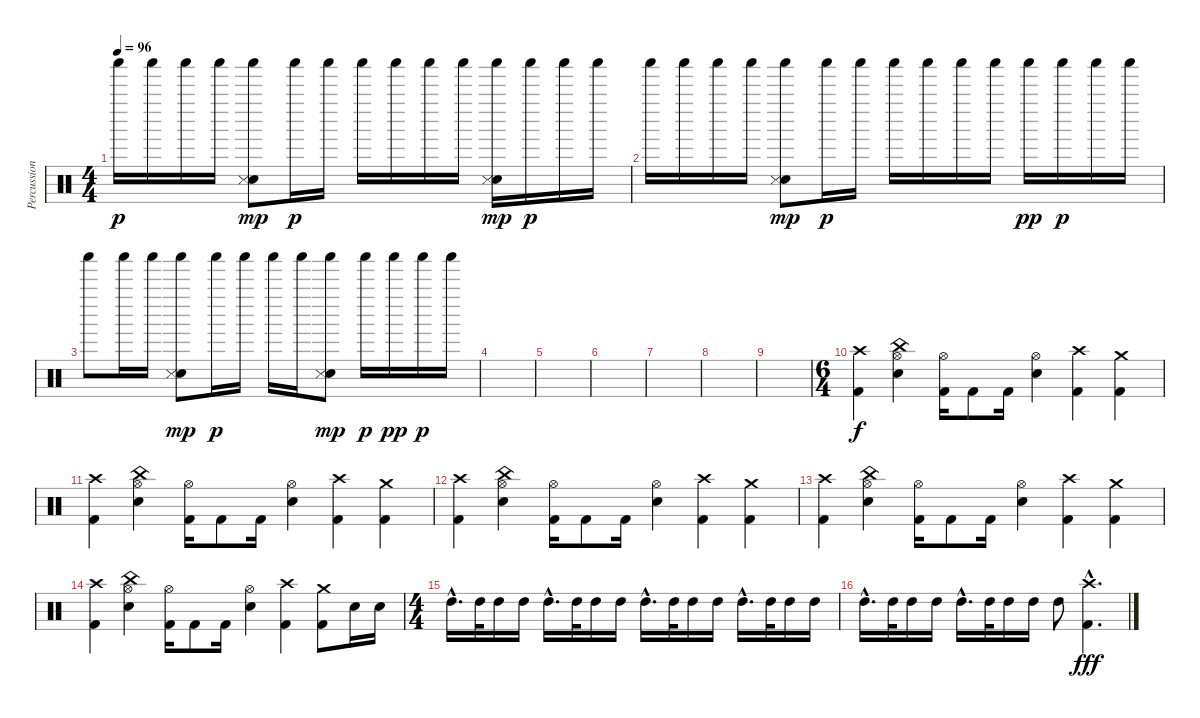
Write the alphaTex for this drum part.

\track ("Percussion" "Percussion") {instrument percussion}
\staff {score}
\articulation defaults
\ts (4 4)
\tempo 96
\clef neutral
\ks c "Shaker (hit)".16{dy p} "Shaker (hit)".16{volume 13} "Shaker (hit)".16 "Shaker (hit)".16
("Shaker (hit)" "Hand Clap (hit)" "Snare (side stick) 3").8{dy mp} "Shaker (hit)".16{dy p} "Shaker (hit)".16 "Shaker (hit)".16 "Shaker (hit)".16 "Shaker (hit)".16 "Shaker (hit)".16 ("Shaker (hit)" "Hand Clap (hit)" "Snare (side stick) 3").16{dy mp} "Shaker (hit)".16{dy p} "Shaker (hit)".16 "Shaker (hit)".16 |
"Shaker (hit)".16 "Shaker (hit)".16{volume 13} "Shaker (hit)".16 "Shaker (hit)".16 ("Shaker (hit)" "Hand Clap (hit)" "Snare (side stick) 3").8{dy mp} "Shaker (hit)".16{dy p} "Shaker (hit)".16 "Shaker (hit)".16 "Shaker (hit)".16 "Shaker (hit)".16 "Shaker (hit)".16 "Shaker (hit)".16{dy pp} "Shaker (hit)".16{dy p} "Shaker (hit)".16 "Shaker (hit)".16 |
"Shaker (hit)".8{volume 13} "Shaker (hit)".16 "Shaker (hit)".16 ("Shaker (hit)" "Hand Clap (hit)" "Snare (side stick) 3").8{dy mp} "Shaker (hit)".16{dy p} "Shaker (hit)".16 "Shaker (hit)".16 "Shaker (hit)".16 ("Shaker (hit)" "Hand Clap (hit)" "Snare (side stick) 3").8{dy mp} "Shaker (hit)".16{dy p} "Shaker (hit)".16{dy pp} "Shaker (hit)".16{dy p} "Shaker (hit)".16 |
|
|
|
|
|
|
\ts (6 4)
("Crash high (hit)" "Kick (hit) 2").4{dy f volume 16} ("China (hit)" "Hi-Hat (open)" "Electric Snare (hit)").4 ("Hi-Hat (open)" "Kick (hit) 2").16 "Kick (hit) 2".8 "Kick (hit) 2".16 ("Hi-Hat (open)" "Electric Snare (hit)").4 ("Crash high (hit)" "Kick (hit) 2").4 ("Crash medium (hit)" "Kick (hit) 2").4 |
("Crash high (hit)" "Kick (hit) 2").4{volume 16} ("China (hit)" "Hi-Hat (open)" "Electric Snare (hit)").4 ("Hi-Hat (open)" "Kick (hit) 2").16 "Kick (hit) 2".8 "Kick (hit) 2".16 ("Hi-Hat (open)" "Electric Snare (hit)").4 ("Crash high (hit)" "Kick (hit) 2").4 ("Crash medium (hit)" "Kick (hit) 2").4 |
("Crash high (hit)" "Kick (hit) 2").4 ("China (hit)" "Hi-Hat (open)" "Electric Snare (hit)").4 ("Hi-Hat (open)" "Kick (hit) 2").16 "Kick (hit) 2".8 "Kick (hit) 2".16 ("Hi-Hat (open)" "Electric Snare (hit)").4 ("Crash high (hit)" "Kick (hit) 2").4 ("Crash medium (hit)" "Kick (hit) 2").4 |
("Crash high (hit)" "Kick (hit) 2").4 ("China (hit)" "Hi-Hat (open)" "Electric Snare (hit)").4 ("Hi-Hat (open)" "Kick (hit) 2").16 "Kick (hit) 2".8 "Kick (hit) 2".16 ("Hi-Hat (open)" "Electric Snare (hit)").4 ("Crash high (hit)" "Kick (hit) 2").4 ("Crash medium (hit)" "Kick (hit) 2").4 |
("Crash high (hit)" "Kick (hit) 2").4 ("China (hit)" "Hi-Hat (open)" "Electric Snare (hit)").4 ("Hi-Hat (open)" "Kick (hit) 2").16 "Kick (hit) 2".8 "Kick (hit) 2".16 ("Hi-Hat (open)" "Electric Snare (hit)").4 ("Crash high (hit)" "Kick (hit) 2").4 ("Crash medium (hit)" "Kick (hit) 2").8 "Electric Snare (hit)".16 "Electric Snare (hit)".16 |
\ts (4 4)
"High Tom (hit)"{hac}.16{d} "High Tom (hit)".32 "High Tom (hit)".16 "High Tom (hit)".16 "High Tom (hit)"{hac}.16{d} "High Tom (hit)".32 "High Tom (hit)".16 "High Tom (hit)".16 "High Tom (hit)"{hac}.16{d} "High Tom (hit)".32 "High Tom (hit)".16 "High Tom (hit)".16 "High Tom (hit)"{hac}.16{d} "High Tom (hit)".32 "High Tom (hit)".16 "High Tom (hit)".16 |
"High Tom (hit)"{hac}.16{d} "High Tom (hit)".32 "High Tom (hit)".16 "High Tom (hit)".16 "High Tom (hit)"{hac}.16{d} "High Tom (hit)".32 "High Tom (hit)".16 "High Tom (hit)".16 "High Tom (hit)".8 ("Crash high (hit)" "Kick (hit) 2"{hac}).4{d dy fff}
